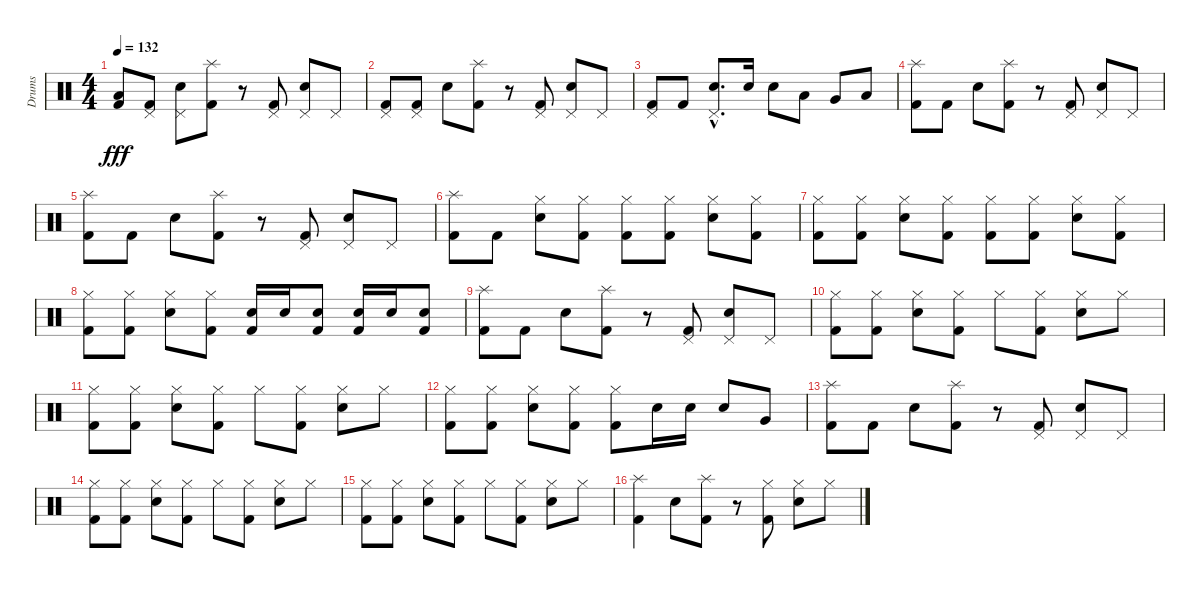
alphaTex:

\track ("Drums" "Drums") {instrument percussion}
\staff {score}
\articulation defaults
\ts (4 4)
\tempo 132
\clef neutral
\ks c
("Kick (hit) 2" "Low Tom (hit)").8{dy fff} ("Pedal Hi-Hat (hit)" "Kick (hit) 2").8 ("Pedal Hi-Hat (hit)" "Electric Snare (hit)").8 ("Splash (hit)" "Kick (hit) 2").8 r.8 ("Kick (hit) 2" "Pedal Hi-Hat (hit)").8 ("Electric Snare (hit)" "Pedal Hi-Hat (hit)").8 "Pedal Hi-Hat (hit)".8 |
("Kick (hit) 2" "Pedal Hi-Hat (hit)").8 ("Pedal Hi-Hat (hit)" "Kick (hit) 2").8 "Electric Snare (hit)".8 ("Splash (hit)" "Kick (hit) 2").8 r.8 ("Kick (hit) 2" "Pedal Hi-Hat (hit)").8 ("Electric Snare (hit)" "Pedal Hi-Hat (hit)").8 "Pedal Hi-Hat (hit)".8 |
("Pedal Hi-Hat (hit)" "Kick (hit) 2").8 "Kick (hit) 2".8 ("Pedal Hi-Hat (hit)" "Electric Snare (hit)"{hac}).8{d} "Electric Snare (hit)".16 "Electric Snare (hit)".8 "Low Tom (hit)".8 "Very Low Tom (hit)".8 "Low Floor Tom (hit)".8 |
("Kick (hit) 2" "Splash (hit)").8 "Kick (hit) 2".8 "Electric Snare (hit)".8 ("Splash (hit)" "Kick (hit) 2").8 r.8 ("Kick (hit) 2" "Pedal Hi-Hat (hit)").8 ("Electric Snare (hit)" "Pedal Hi-Hat (hit)").8 "Pedal Hi-Hat (hit)".8 |
("Kick (hit) 2" "Splash (hit)").8 "Kick (hit) 2".8 "Electric Snare (hit)".8 ("Splash (hit)" "Kick (hit) 2").8 r.8 ("Kick (hit) 2" "Pedal Hi-Hat (hit)").8 ("Electric Snare (hit)" "Pedal Hi-Hat (hit)").8 "Pedal Hi-Hat (hit)".8 |
("Splash (hit)" "Kick (hit) 2").8 "Kick (hit) 2".8 ("Hi-Hat (closed)" "Electric Snare (hit)").8 ("Hi-Hat (closed)" "Kick (hit) 2").8 ("Hi-Hat (closed)" "Kick (hit) 2").8 ("Hi-Hat (closed)" "Kick (hit) 2").8 ("Hi-Hat (closed)" "Electric Snare (hit)").8 ("Hi-Hat (closed)" "Kick (hit) 2").8 |
("Hi-Hat (closed)" "Kick (hit) 2").8 ("Hi-Hat (closed)" "Kick (hit) 2").8 ("Hi-Hat (closed)" "Electric Snare (hit)").8 ("Hi-Hat (closed)" "Kick (hit) 2").8 ("Hi-Hat (closed)" "Kick (hit) 2").8 ("Hi-Hat (closed)" "Kick (hit) 2").8 ("Hi-Hat (closed)" "Electric Snare (hit)").8 ("Hi-Hat (closed)" "Kick (hit) 2").8 |
("Hi-Hat (closed)" "Kick (hit) 2").8 ("Hi-Hat (closed)" "Kick (hit) 2").8 ("Hi-Hat (closed)" "Electric Snare (hit)").8 ("Hi-Hat (closed)" "Kick (hit) 2").8 ("Electric Snare (hit)" "Kick (hit) 2").16 "Electric Snare (hit)".16 ("Kick (hit) 2" "Electric Snare (hit)").8 ("Electric Snare (hit)" "Kick (hit) 2").16 "Electric Snare (hit)".16 ("Kick (hit) 2" "Electric Snare (hit)").8 |
("Kick (hit) 2" "Splash (hit)").8 "Kick (hit) 2".8 "Electric Snare (hit)".8 ("Splash (hit)" "Kick (hit) 2").8 r.8 ("Kick (hit) 2" "Pedal Hi-Hat (hit)").8 ("Electric Snare (hit)" "Pedal Hi-Hat (hit)").8 "Pedal Hi-Hat (hit)".8 |
("Hi-Hat (closed)" "Kick (hit) 2").8 ("Hi-Hat (closed)" "Kick (hit) 2").8 ("Hi-Hat (closed)" "Electric Snare (hit)").8 ("Hi-Hat (closed)" "Kick (hit) 2").8 "Hi-Hat (closed)".8 ("Hi-Hat (closed)" "Kick (hit) 2").8 ("Hi-Hat (closed)" "Electric Snare (hit)").8 "Hi-Hat (closed)".8 |
("Hi-Hat (closed)" "Kick (hit) 2").8 ("Hi-Hat (closed)" "Kick (hit) 2").8 ("Hi-Hat (closed)" "Electric Snare (hit)").8 ("Hi-Hat (closed)" "Kick (hit) 2").8 "Hi-Hat (closed)".8 ("Hi-Hat (closed)" "Kick (hit) 2").8 ("Hi-Hat (closed)" "Electric Snare (hit)").8 "Hi-Hat (closed)".8 |
("Hi-Hat (closed)" "Kick (hit) 2").8 ("Hi-Hat (closed)" "Kick (hit) 2").8 ("Hi-Hat (closed)" "Electric Snare (hit)").8 ("Hi-Hat (closed)" "Kick (hit) 2").8 ("Kick (hit) 2" "Hi-Hat (closed)").8 "Electric Snare (hit)".16 "Electric Snare (hit)".16 "Electric Snare (hit)".8 "Very Low Tom (hit)".8 |
("Kick (hit) 2" "Splash (hit)").8 "Kick (hit) 2".8 "Electric Snare (hit)".8 ("Splash (hit)" "Kick (hit) 2").8 r.8 ("Kick (hit) 2" "Pedal Hi-Hat (hit)").8 ("Electric Snare (hit)" "Pedal Hi-Hat (hit)").8 "Pedal Hi-Hat (hit)".8 |
("Hi-Hat (closed)" "Kick (hit) 2").8 ("Hi-Hat (closed)" "Kick (hit) 2").8 ("Hi-Hat (closed)" "Electric Snare (hit)").8 ("Hi-Hat (closed)" "Kick (hit) 2").8 "Hi-Hat (closed)".8 ("Hi-Hat (closed)" "Kick (hit) 2").8 ("Hi-Hat (closed)" "Electric Snare (hit)").8 "Hi-Hat (closed)".8 |
("Hi-Hat (closed)" "Kick (hit) 2").8 ("Hi-Hat (closed)" "Kick (hit) 2").8 ("Hi-Hat (closed)" "Electric Snare (hit)").8 ("Hi-Hat (closed)" "Kick (hit) 2").8 "Hi-Hat (closed)".8 ("Hi-Hat (closed)" "Kick (hit) 2").8 ("Hi-Hat (closed)" "Electric Snare (hit)").8 "Hi-Hat (closed)".8 |
("Splash (hit)" "Kick (hit) 2").4 "Electric Snare (hit)".8 ("Splash (hit)" "Kick (hit) 2").8 r.8 ("Kick (hit) 2" "Hi-Hat (closed)").8 ("Electric Snare (hit)" "Hi-Hat (closed)").8 "Hi-Hat (closed)".8
